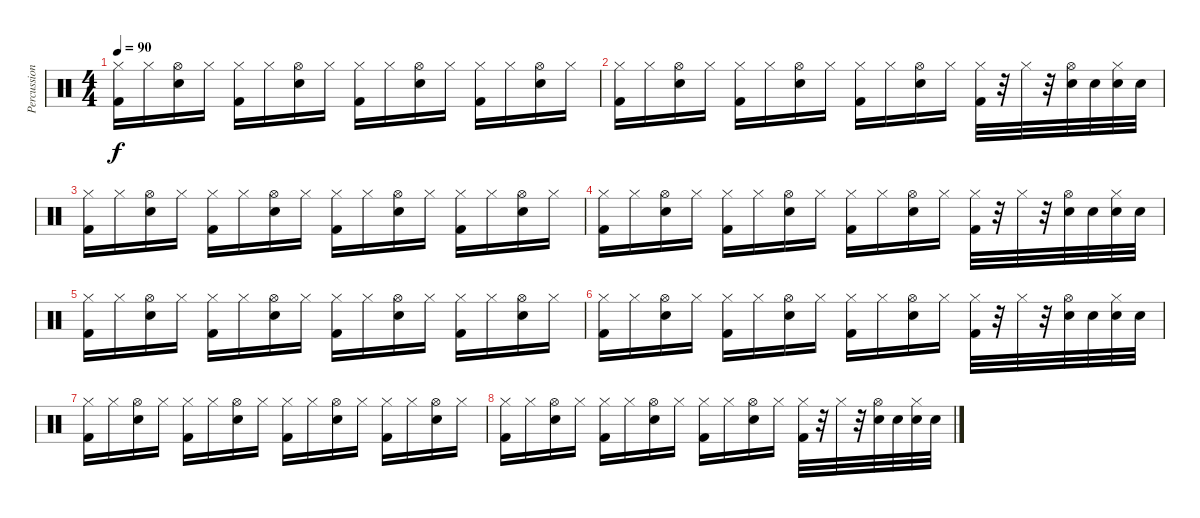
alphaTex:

\track ("Percussions" "Percussion") {instrument percussion}
\staff {score}
\articulation defaults
\ts (4 4)
\tempo 90
\clef neutral
\ks c
("Hi-Hat (closed)" "Kick (hit) 2").16{dy f} "Hi-Hat (closed)".16 ("Hi-Hat (open)" "Snare (hit) 2").16 "Hi-Hat (closed)".16 ("Hi-Hat (closed)" "Kick (hit) 2").16 "Hi-Hat (closed)".16 ("Hi-Hat (open)" "Snare (hit) 2").16 "Hi-Hat (closed)".16 ("Hi-Hat (closed)" "Kick (hit) 2").16 "Hi-Hat (closed)".16 ("Hi-Hat (open)" "Snare (hit) 2").16 "Hi-Hat (closed)".16 ("Hi-Hat (closed)" "Kick (hit) 2").16 "Hi-Hat (closed)".16 ("Hi-Hat (open)" "Snare (hit) 2").16 "Hi-Hat (closed)".16 |
("Hi-Hat (closed)" "Kick (hit) 2").16 "Hi-Hat (closed)".16 ("Hi-Hat (open)" "Snare (hit) 2").16 "Hi-Hat (closed)".16 ("Hi-Hat (closed)" "Kick (hit) 2").16 "Hi-Hat (closed)".16 ("Hi-Hat (open)" "Snare (hit) 2").16 "Hi-Hat (closed)".16 ("Hi-Hat (closed)" "Kick (hit) 2").16 "Hi-Hat (closed)".16 ("Hi-Hat (open)" "Snare (hit) 2").16 "Hi-Hat (closed)".16 ("Hi-Hat (closed)" "Kick (hit) 2").32 r.32 "Hi-Hat (closed)".32 r.32 ("Hi-Hat (open)" "Snare (hit) 2").32 "Snare (hit) 2".32 ("Hi-Hat (closed)" "Snare (hit) 2").32 "Snare (hit) 2".32 |
("Hi-Hat (closed)" "Kick (hit) 2").16 "Hi-Hat (closed)".16 ("Hi-Hat (open)" "Snare (hit) 2").16 "Hi-Hat (closed)".16 ("Hi-Hat (closed)" "Kick (hit) 2").16 "Hi-Hat (closed)".16 ("Hi-Hat (open)" "Snare (hit) 2").16 "Hi-Hat (closed)".16 ("Hi-Hat (closed)" "Kick (hit) 2").16 "Hi-Hat (closed)".16 ("Hi-Hat (open)" "Snare (hit) 2").16 "Hi-Hat (closed)".16 ("Hi-Hat (closed)" "Kick (hit) 2").16 "Hi-Hat (closed)".16 ("Hi-Hat (open)" "Snare (hit) 2").16 "Hi-Hat (closed)".16 |
("Hi-Hat (closed)" "Kick (hit) 2").16 "Hi-Hat (closed)".16 ("Hi-Hat (open)" "Snare (hit) 2").16 "Hi-Hat (closed)".16 ("Hi-Hat (closed)" "Kick (hit) 2").16 "Hi-Hat (closed)".16 ("Hi-Hat (open)" "Snare (hit) 2").16 "Hi-Hat (closed)".16 ("Hi-Hat (closed)" "Kick (hit) 2").16 "Hi-Hat (closed)".16 ("Hi-Hat (open)" "Snare (hit) 2").16 "Hi-Hat (closed)".16 ("Hi-Hat (closed)" "Kick (hit) 2").32 r.32 "Hi-Hat (closed)".32 r.32 ("Hi-Hat (open)" "Snare (hit) 2").32 "Snare (hit) 2".32 ("Hi-Hat (closed)" "Snare (hit) 2").32 "Snare (hit) 2".32 |
("Hi-Hat (closed)" "Kick (hit) 2").16 "Hi-Hat (closed)".16 ("Hi-Hat (open)" "Snare (hit) 2").16 "Hi-Hat (closed)".16 ("Hi-Hat (closed)" "Kick (hit) 2").16 "Hi-Hat (closed)".16 ("Hi-Hat (open)" "Snare (hit) 2").16 "Hi-Hat (closed)".16 ("Hi-Hat (closed)" "Kick (hit) 2").16 "Hi-Hat (closed)".16 ("Hi-Hat (open)" "Snare (hit) 2").16 "Hi-Hat (closed)".16 ("Hi-Hat (closed)" "Kick (hit) 2").16 "Hi-Hat (closed)".16 ("Hi-Hat (open)" "Snare (hit) 2").16 "Hi-Hat (closed)".16 |
("Hi-Hat (closed)" "Kick (hit) 2").16 "Hi-Hat (closed)".16 ("Hi-Hat (open)" "Snare (hit) 2").16 "Hi-Hat (closed)".16 ("Hi-Hat (closed)" "Kick (hit) 2").16 "Hi-Hat (closed)".16 ("Hi-Hat (open)" "Snare (hit) 2").16 "Hi-Hat (closed)".16 ("Hi-Hat (closed)" "Kick (hit) 2").16 "Hi-Hat (closed)".16 ("Hi-Hat (open)" "Snare (hit) 2").16 "Hi-Hat (closed)".16 ("Hi-Hat (closed)" "Kick (hit) 2").32 r.32 "Hi-Hat (closed)".32 r.32 ("Hi-Hat (open)" "Snare (hit) 2").32 "Snare (hit) 2".32 ("Hi-Hat (closed)" "Snare (hit) 2").32 "Snare (hit) 2".32 |
("Hi-Hat (closed)" "Kick (hit) 2").16 "Hi-Hat (closed)".16 ("Hi-Hat (open)" "Snare (hit) 2").16 "Hi-Hat (closed)".16 ("Hi-Hat (closed)" "Kick (hit) 2").16 "Hi-Hat (closed)".16 ("Hi-Hat (open)" "Snare (hit) 2").16 "Hi-Hat (closed)".16 ("Hi-Hat (closed)" "Kick (hit) 2").16 "Hi-Hat (closed)".16 ("Hi-Hat (open)" "Snare (hit) 2").16 "Hi-Hat (closed)".16 ("Hi-Hat (closed)" "Kick (hit) 2").16 "Hi-Hat (closed)".16 ("Hi-Hat (open)" "Snare (hit) 2").16 "Hi-Hat (closed)".16 |
("Hi-Hat (closed)" "Kick (hit) 2").16 "Hi-Hat (closed)".16 ("Hi-Hat (open)" "Snare (hit) 2").16 "Hi-Hat (closed)".16 ("Hi-Hat (closed)" "Kick (hit) 2").16 "Hi-Hat (closed)".16 ("Hi-Hat (open)" "Snare (hit) 2").16 "Hi-Hat (closed)".16 ("Hi-Hat (closed)" "Kick (hit) 2").16 "Hi-Hat (closed)".16 ("Hi-Hat (open)" "Snare (hit) 2").16 "Hi-Hat (closed)".16 ("Hi-Hat (closed)" "Kick (hit) 2").32 r.32 "Hi-Hat (closed)".32 r.32 ("Hi-Hat (open)" "Snare (hit) 2").32 "Snare (hit) 2".32 ("Hi-Hat (closed)" "Snare (hit) 2").32 "Snare (hit) 2".32
